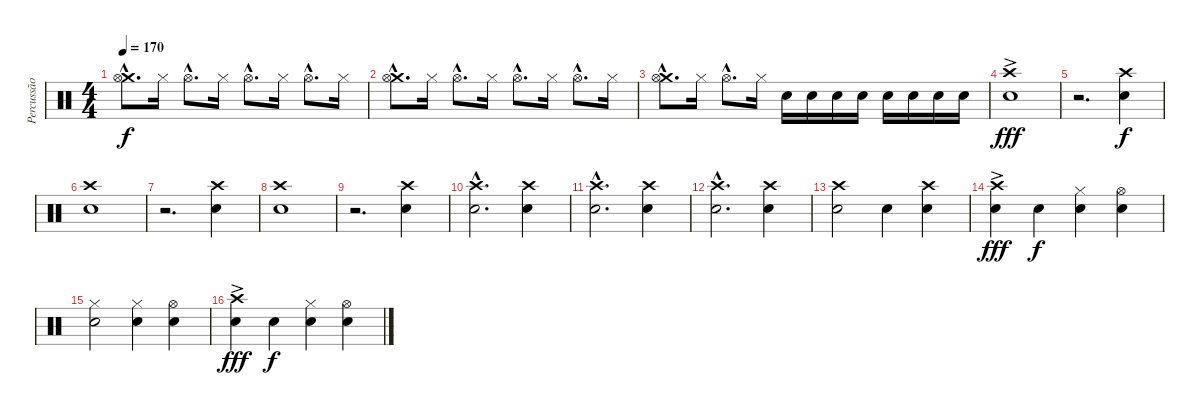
\track ("Percussão" "Percussão") {instrument percussion}
\staff {score}
\articulation defaults
\ts (4 4)
\tempo 170
\clef neutral
\ks c
("Crash medium (hit)"{hac} "Hi-Hat (open)"{hac}).8{d dy f} "Hi-Hat (closed)".16 "Hi-Hat (open)"{hac}.8{d} "Hi-Hat (closed)".16 "Hi-Hat (open)"{hac}.8{d} "Hi-Hat (closed)".16 "Hi-Hat (open)"{hac}.8{d} "Hi-Hat (closed)".16 |
("Crash medium (hit)"{hac} "Hi-Hat (open)"{hac}).8{d} "Hi-Hat (closed)".16 "Hi-Hat (open)"{hac}.8{d} "Hi-Hat (closed)".16 "Hi-Hat (open)"{hac}.8{d} "Hi-Hat (closed)".16 "Hi-Hat (open)"{hac}.8{d} "Hi-Hat (closed)".16 |
("Crash medium (hit)"{hac} "Hi-Hat (open)"{hac}).8{d} "Hi-Hat (closed)".16 "Hi-Hat (open)"{hac}.8{d} "Hi-Hat (closed)".16 "Snare (hit) 2".16{volume 15} "Snare (hit) 2".16 "Snare (hit) 2".16 "Snare (hit) 2".16 "Snare (hit) 2".16 "Snare (hit) 2".16 "Snare (hit) 2".16 "Snare (hit) 2".16 |
("Crash high (hit)"{ac} "Snare (hit) 2"{ac}).1{dy fff volume 13} |
r.2{d} ("Crash high (hit)" "Snare (hit) 2").4{dy f} |
("Crash high (hit)" "Snare (hit) 2").1 |
r.2{d} ("Crash high (hit)" "Snare (hit) 2").4 |
("Crash high (hit)" "Snare (hit) 2").1 |
r.2{d} ("Crash high (hit)" "Snare (hit) 2").4 |
("Crash high (hit)"{hac} "Snare (hit) 2"{hac}).2{d} ("Crash high (hit)" "Snare (hit) 2").4 |
("Crash high (hit)"{hac} "Snare (hit) 2"{hac}).2{d} ("Crash high (hit)" "Snare (hit) 2").4 |
("Crash high (hit)"{hac} "Snare (hit) 2"{hac}).2{d} ("Crash high (hit)" "Snare (hit) 2").4 |
("Crash high (hit)" "Snare (hit) 2").2 "Snare (hit) 2".4 ("Crash high (hit)" "Snare (hit) 2").4 |
("Crash high (hit)"{ac} "Snare (hit) 2").4{dy fff} "Snare (hit) 2".4{dy f} ("Hi-Hat (closed)" "Snare (hit) 2").4 ("Hi-Hat (open)" "Snare (hit) 2").4 |
("Hi-Hat (closed)" "Snare (hit) 2").2 ("Hi-Hat (closed)" "Snare (hit) 2").4 ("Hi-Hat (open)" "Snare (hit) 2").4 |
("Crash high (hit)"{ac} "Snare (hit) 2").4{dy fff} "Snare (hit) 2".4{dy f} ("Hi-Hat (closed)" "Snare (hit) 2").4 ("Hi-Hat (open)" "Snare (hit) 2").4
